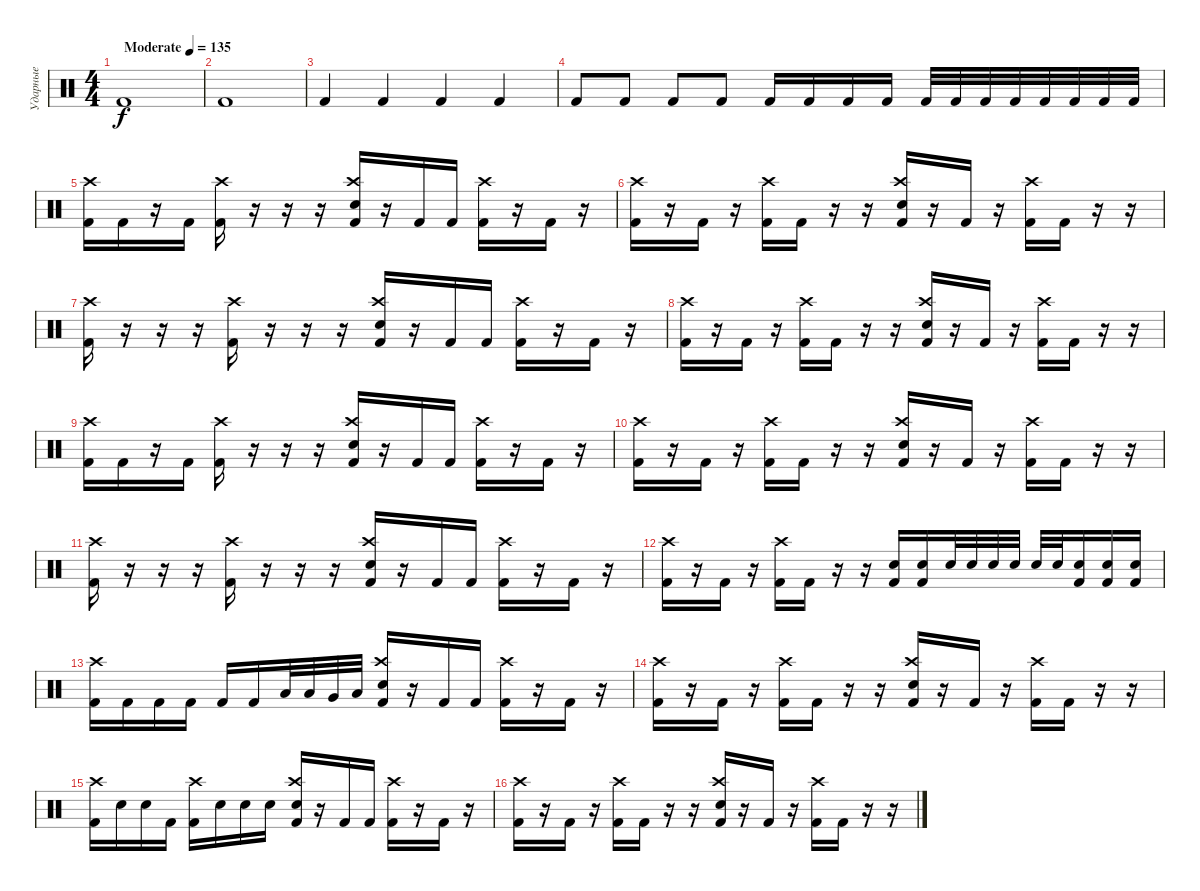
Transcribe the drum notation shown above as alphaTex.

\track ("Ударные" "Ударные") {instrument percussion}
\staff {score}
\articulation defaults
\ts (4 4)
\tempo (135 "Moderate")
\clef neutral
\ks c "Kick (hit) 2".1{dy f}
|
"Kick (hit) 2".1 |
"Kick (hit) 2".4 "Kick (hit) 2".4 "Kick (hit) 2".4 "Kick (hit) 2".4 |
"Kick (hit) 2".8 "Kick (hit) 2".8 "Kick (hit) 2".8 "Kick (hit) 2".8 "Kick (hit) 2".16 "Kick (hit) 2".16 "Kick (hit) 2".16 "Kick (hit) 2".16 "Kick (hit) 2".32 "Kick (hit) 2".32 "Kick (hit) 2".32 "Kick (hit) 2".32 "Kick (hit) 2".32 "Kick (hit) 2".32 "Kick (hit) 2".32 "Kick (hit) 2".32 |
("Crash high (hit)" "Kick (hit) 2").16 "Kick (hit) 2".16 r.16 "Kick (hit) 2".16 ("Crash high (hit)" "Kick (hit) 2").16 r.16 r.16 r.16 ("Crash high (hit)" "Snare (hit) 2" "Kick (hit) 2").16 r.16 "Kick (hit) 2".16 "Kick (hit) 2".16 ("Crash high (hit)" "Kick (hit) 2").16 r.16 "Kick (hit) 2".16 r.16 |
("Crash high (hit)" "Kick (hit) 2").16 r.16 "Kick (hit) 2".16 r.16 ("Crash high (hit)" "Kick (hit) 2").16 "Kick (hit) 2".16 r.16 r.16 ("Crash high (hit)" "Snare (hit) 2" "Kick (hit) 2").16 r.16 "Kick (hit) 2".16 r.16 ("Crash high (hit)" "Kick (hit) 2").16 "Kick (hit) 2".16 r.16 r.16 |
("Crash high (hit)" "Kick (hit) 2").16 r.16 r.16 r.16 ("Crash high (hit)" "Kick (hit) 2").16 r.16 r.16 r.16 ("Crash high (hit)" "Snare (hit) 2" "Kick (hit) 2").16 r.16 "Kick (hit) 2".16 "Kick (hit) 2".16 ("Crash high (hit)" "Kick (hit) 2").16 r.16 "Kick (hit) 2".16 r.16 |
("Crash high (hit)" "Kick (hit) 2").16 r.16 "Kick (hit) 2".16 r.16 ("Crash high (hit)" "Kick (hit) 2").16 "Kick (hit) 2".16 r.16 r.16 ("Crash high (hit)" "Snare (hit) 2" "Kick (hit) 2").16 r.16 "Kick (hit) 2".16 r.16 ("Crash high (hit)" "Kick (hit) 2").16 "Kick (hit) 2".16 r.16 r.16 |
("Crash high (hit)" "Kick (hit) 2").16 "Kick (hit) 2".16 r.16 "Kick (hit) 2".16 ("Crash high (hit)" "Kick (hit) 2").16 r.16 r.16 r.16 ("Crash high (hit)" "Snare (hit) 2" "Kick (hit) 2").16 r.16 "Kick (hit) 2".16 "Kick (hit) 2".16 ("Crash high (hit)" "Kick (hit) 2").16 r.16 "Kick (hit) 2".16 r.16 |
("Crash high (hit)" "Kick (hit) 2").16 r.16 "Kick (hit) 2".16 r.16 ("Crash high (hit)" "Kick (hit) 2").16 "Kick (hit) 2".16 r.16 r.16 ("Crash high (hit)" "Snare (hit) 2" "Kick (hit) 2").16 r.16 "Kick (hit) 2".16 r.16 ("Crash high (hit)" "Kick (hit) 2").16 "Kick (hit) 2".16 r.16 r.16 |
("Crash high (hit)" "Kick (hit) 2").16 r.16 r.16 r.16 ("Crash high (hit)" "Kick (hit) 2").16 r.16 r.16 r.16 ("Crash high (hit)" "Snare (hit) 2" "Kick (hit) 2").16 r.16 "Kick (hit) 2".16 "Kick (hit) 2".16 ("Crash high (hit)" "Kick (hit) 2").16 r.16 "Kick (hit) 2".16 r.16 |
("Crash high (hit)" "Kick (hit) 2").16 r.16 "Kick (hit) 2".16 r.16 ("Crash high (hit)" "Kick (hit) 2").16 "Kick (hit) 2".16 r.16 r.16 ("Electric Snare (hit)" "Kick (hit) 2").16 ("Electric Snare (hit)" "Kick (hit) 2").16 "Electric Snare (hit)".32 "Electric Snare (hit)".32 "Electric Snare (hit)".32 "Electric Snare (hit)".32 "Electric Snare (hit)".32 "Electric Snare (hit)".32 ("Electric Snare (hit)" "Kick (hit) 2").16 ("Electric Snare (hit)" "Kick (hit) 2").16 ("Electric Snare (hit)" "Kick (hit) 2").16 |
("Crash high (hit)" "Kick (hit) 2").16 "Kick (hit) 2".16 "Kick (hit) 2".16 "Kick (hit) 2".16 "Kick (hit) 2".16 "Kick (hit) 2".16 "Low Tom (hit)".32 "Low Tom (hit)".32 "Very Low Tom (hit)".32 "Low Floor Tom (hit)".32 ("Crash high (hit)" "Snare (hit) 2" "Kick (hit) 2").16 r.16 "Kick (hit) 2".16 "Kick (hit) 2".16 ("Crash high (hit)" "Kick (hit) 2").16 r.16 "Kick (hit) 2".16 r.16 |
("Crash high (hit)" "Kick (hit) 2").16 r.16 "Kick (hit) 2".16 r.16 ("Crash high (hit)" "Kick (hit) 2").16 "Kick (hit) 2".16 r.16 r.16 ("Crash high (hit)" "Snare (hit) 2" "Kick (hit) 2").16 r.16 "Kick (hit) 2".16 r.16 ("Crash high (hit)" "Kick (hit) 2").16 "Kick (hit) 2".16 r.16 r.16 |
("Crash high (hit)" "Kick (hit) 2").16 "Electric Snare (hit)".16 "Electric Snare (hit)".16 "Kick (hit) 2".16 ("Crash high (hit)" "Kick (hit) 2").16 "Electric Snare (hit)".16 "Electric Snare (hit)".16 "Electric Snare (hit)".16 ("Crash high (hit)" "Snare (hit) 2" "Kick (hit) 2").16 r.16 "Kick (hit) 2".16 "Kick (hit) 2".16 ("Crash high (hit)" "Kick (hit) 2").16 r.16 "Kick (hit) 2".16 r.16 |
("Crash high (hit)" "Kick (hit) 2").16 r.16 "Kick (hit) 2".16 r.16 ("Crash high (hit)" "Kick (hit) 2").16 "Kick (hit) 2".16 r.16 r.16 ("Crash high (hit)" "Snare (hit) 2" "Kick (hit) 2").16 r.16 "Kick (hit) 2".16 r.16 ("Crash high (hit)" "Kick (hit) 2").16 "Kick (hit) 2".16 r.16 r.16
